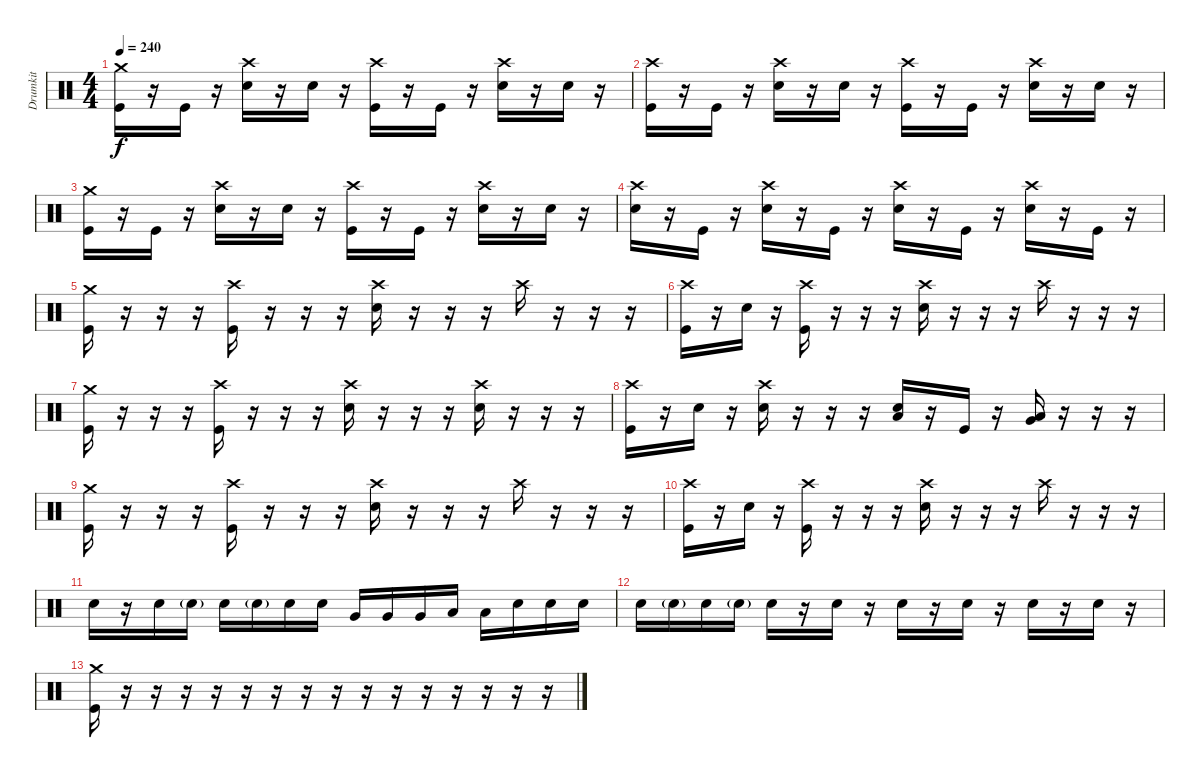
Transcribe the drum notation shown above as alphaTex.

\track ("Drumkit" "Drumkit") {instrument percussion}
\staff {score}
\articulation defaults
\ts (4 4)
\tempo 240
\clef neutral
\ks c
("Crash medium (hit)" "Kick (hit)").16{dy f} r.16 "Kick (hit)".16 r.16 ("Crash high (hit)" "Snare (hit) 2").16 r.16 "Snare (hit) 2".16 r.16 ("Crash high (hit)" "Kick (hit)").16 r.16 "Kick (hit)".16 r.16 ("Crash high (hit)" "Snare (hit) 2").16 r.16 "Snare (hit) 2".16 r.16 |
("Crash high (hit)" "Kick (hit)").16 r.16 "Kick (hit)".16 r.16 ("Crash high (hit)" "Snare (hit) 2").16 r.16 "Snare (hit) 2".16 r.16 ("Crash high (hit)" "Kick (hit)").16 r.16 "Kick (hit)".16 r.16 ("Crash high (hit)" "Snare (hit) 2").16 r.16 "Snare (hit) 2".16 r.16 |
("Crash medium (hit)" "Kick (hit)").16 r.16 "Kick (hit)".16 r.16 ("Crash high (hit)" "Snare (hit) 2").16 r.16 "Snare (hit) 2".16 r.16 ("Crash high (hit)" "Kick (hit)").16 r.16 "Kick (hit)".16 r.16 ("Crash high (hit)" "Snare (hit) 2").16 r.16 "Snare (hit) 2".16 r.16 |
("Crash high (hit)" "Snare (hit) 2").16 r.16 "Kick (hit)".16 r.16 ("Crash high (hit)" "Snare (hit) 2").16 r.16 "Kick (hit)".16 r.16 ("Crash high (hit)" "Snare (hit) 2").16 r.16 "Kick (hit)".16 r.16 ("Crash high (hit)" "Snare (hit) 2").16 r.16 "Kick (hit)".16 r.16 |
("Crash medium (hit)" "Kick (hit)").16 r.16 r.16 r.16 ("Crash high (hit)" "Kick (hit)").16 r.16 r.16 r.16 ("Crash high (hit)" "Snare (hit) 2").16 r.16 r.16 r.16 "Crash high (hit)".16 r.16 r.16 r.16 |
("Crash high (hit)" "Kick (hit)").16 r.16 "Snare (hit) 2".16 r.16 ("Crash high (hit)" "Kick (hit)").16 r.16 r.16 r.16 ("Crash high (hit)" "Snare (hit) 2").16 r.16 r.16 r.16 "Crash high (hit)".16 r.16 r.16 r.16 |
("Crash medium (hit)" "Kick (hit)").16 r.16 r.16 r.16 ("Crash high (hit)" "Kick (hit)").16 r.16 r.16 r.16 ("Crash high (hit)" "Snare (hit) 2").16 r.16 r.16 r.16 ("Crash high (hit)" "Snare (hit) 2").16 r.16 r.16 r.16 |
("Crash high (hit)" "Kick (hit)").16 r.16 "Snare (hit) 2".16 r.16 ("Crash high (hit)" "Snare (hit) 2").16 r.16 r.16 r.16 ("Low Tom (hit)" "Snare (hit) 2").16 r.16 "Kick (hit)".16 r.16 ("Very Low Tom (hit)" "Low Floor Tom (hit)").16 r.16 r.16 r.16 |
("Crash medium (hit)" "Kick (hit)").16 r.16 r.16 r.16 ("Crash high (hit)" "Kick (hit)").16 r.16 r.16 r.16 ("Crash high (hit)" "Snare (hit) 2").16 r.16 r.16 r.16 "Crash high (hit)".16 r.16 r.16 r.16 |
("Crash high (hit)" "Kick (hit)").16 r.16 "Snare (hit) 2".16 r.16 ("Crash high (hit)" "Kick (hit)").16 r.16 r.16 r.16 ("Crash high (hit)" "Snare (hit) 2").16 r.16 r.16 r.16 "Crash high (hit)".16 r.16 r.16 r.16 |
"Snare (hit) 2".16 r.16 "Snare (hit) 2".16 "Snare (hit) 2"{g}.16 "Snare (hit) 2".16 "Snare (hit) 2"{g}.16 "Snare (hit) 2".16 "Snare (hit) 2".16 "Very Low Tom (hit)".16 "Very Low Tom (hit)".16 "Very Low Tom (hit)".16 "Low Floor Tom (hit)".16 "Low Floor Tom (hit)".16 "Snare (hit) 2".16 "Snare (hit) 2".16 "Snare (hit) 2".16 |
"Snare (hit) 2".16 "Snare (hit) 2"{g}.16 "Snare (hit) 2".16 "Snare (hit) 2"{g}.16 "Snare (hit) 2".16 r.16 "Snare (hit) 2".16 r.16 "Snare (hit) 2".16 r.16 "Snare (hit) 2".16 r.16 "Snare (hit) 2".16 r.16 "Snare (hit) 2".16 r.16 |
("Crash medium (hit)" "Kick (hit)").16 r.16 r.16 r.16 r.16 r.16 r.16 r.16 r.16 r.16 r.16 r.16 r.16 r.16 r.16 r.16
